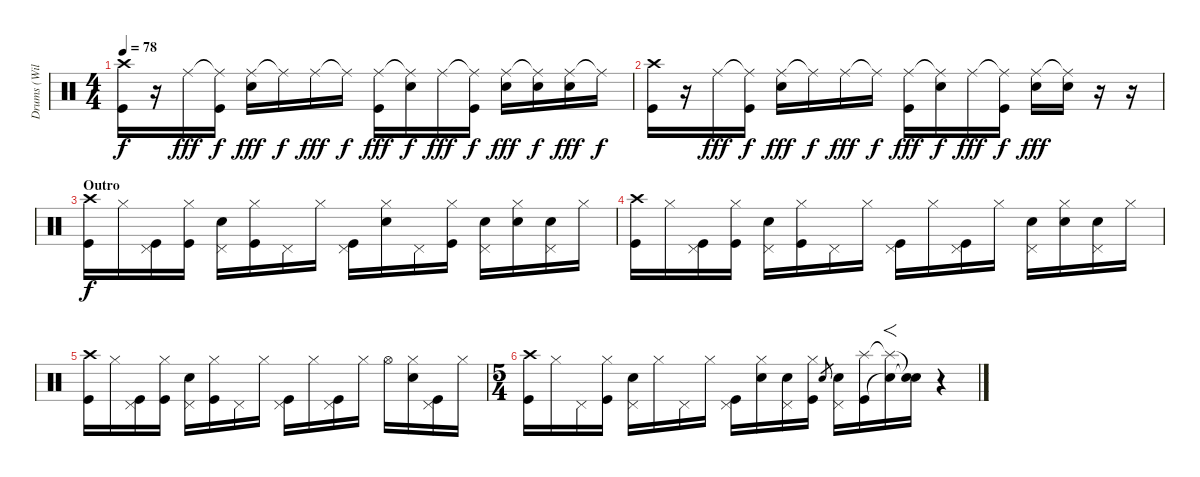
\track ("Drums (William Ward)" "Drums (Wil") {instrument percussion}
\staff {score}
\articulation defaults
\ts (4 4)
\tempo 78
\clef neutral
\ks c
("Crash high (hit)" "Kick (hit)").16{dy f} r.16 "Ride (middle)".16{dy fff} ("Ride (middle)"{t} "Kick (hit)").16{dy f} ("Ride (middle)" "Electric Snare (hit)").16{dy fff} "Ride (middle)"{t}.16{dy f} "Ride (middle)".16{dy fff} "Ride (middle)"{t}.16{dy f} ("Ride (middle)" "Kick (hit)").16{dy fff} ("Ride (middle)"{t} "Electric Snare (hit)").16{dy f} "Ride (middle)".16{dy fff} ("Ride (middle)"{t} "Kick (hit)").16{dy f} ("Ride (middle)" "Electric Snare (hit)").16{dy fff} ("Ride (middle)"{t} "Electric Snare (hit)").16{dy f} ("Ride (middle)" "Electric Snare (hit)").16{dy fff} "Ride (middle)"{t}.16{dy f} |
("Crash high (hit)" "Kick (hit)").16 r.16 "Ride (middle)".16{dy fff} ("Ride (middle)"{t} "Kick (hit)").16{dy f} ("Ride (middle)" "Electric Snare (hit)").16{dy fff} "Ride (middle)"{t}.16{dy f} "Ride (middle)".16{dy fff} "Ride (middle)"{t}.16{dy f} ("Ride (middle)" "Kick (hit)").16{dy fff} ("Ride (middle)"{t} "Electric Snare (hit)").16{dy f} "Ride (middle)".16{dy fff} ("Ride (middle)"{t} "Kick (hit)").16{dy f} ("Ride (middle)" "Electric Snare (hit)").16{dy fff} ("Ride (middle)"{t} "Electric Snare (hit)").16 r.16 r.16 |
\section ("" "Outro")
("Crash high (hit)" "Kick (hit)").16{dy f} "Hi-Hat (closed)".16 ("Pedal Hi-Hat (hit)" "Kick (hit)").16 ("Hi-Hat (closed)" "Kick (hit)").16 ("Pedal Hi-Hat (hit)" "Electric Snare (hit)").16 ("Hi-Hat (closed)" "Kick (hit)").16 "Pedal Hi-Hat (hit)".16 "Hi-Hat (closed)".16 ("Pedal Hi-Hat (hit)" "Kick (hit)").16 ("Hi-Hat (closed)" "Electric Snare (hit)").16 "Pedal Hi-Hat (hit)".16 ("Hi-Hat (closed)" "Kick (hit)").16 ("Pedal Hi-Hat (hit)" "Electric Snare (hit)").16 ("Hi-Hat (closed)" "Electric Snare (hit)").16 ("Pedal Hi-Hat (hit)" "Electric Snare (hit)").16 "Hi-Hat (closed)".16 |
("Crash high (hit)" "Kick (hit)").16 "Hi-Hat (closed)".16 ("Pedal Hi-Hat (hit)" "Kick (hit)").16 ("Hi-Hat (closed)" "Kick (hit)").16 ("Pedal Hi-Hat (hit)" "Electric Snare (hit)").16 ("Hi-Hat (closed)" "Kick (hit)").16 "Pedal Hi-Hat (hit)".16 "Hi-Hat (closed)".16 ("Pedal Hi-Hat (hit)" "Kick (hit)").16 "Hi-Hat (closed)".16 ("Pedal Hi-Hat (hit)" "Kick (hit)").16 "Hi-Hat (closed)".16 ("Pedal Hi-Hat (hit)" "Electric Snare (hit)").16 ("Hi-Hat (closed)" "Electric Snare (hit)").16 ("Pedal Hi-Hat (hit)" "Electric Snare (hit)").16 "Hi-Hat (closed)".16 |
("Crash high (hit)" "Kick (hit)").16 "Hi-Hat (closed)".16 ("Pedal Hi-Hat (hit)" "Kick (hit)").16 ("Hi-Hat (closed)" "Kick (hit)").16 ("Pedal Hi-Hat (hit)" "Electric Snare (hit)").16 ("Hi-Hat (closed)" "Kick (hit)").16 "Pedal Hi-Hat (hit)".16 "Hi-Hat (closed)".16 ("Pedal Hi-Hat (hit)" "Kick (hit)").16 "Hi-Hat (closed)".16 ("Pedal Hi-Hat (hit)" "Kick (hit)").16 "Hi-Hat (closed)".16 "Hi-Hat (open)".16 ("Hi-Hat (closed)" "Electric Snare (hit)").16 ("Pedal Hi-Hat (hit)" "Kick (hit)").16 "Hi-Hat (closed)".16 |
\ts (5 4)
("Crash high (hit)" "Kick (hit)").16 "Hi-Hat (closed)".16 "Pedal Hi-Hat (hit)".16 ("Hi-Hat (closed)" "Kick (hit)").16 ("Pedal Hi-Hat (hit)" "Electric Snare (hit)").16 "Hi-Hat (closed)".16 "Pedal Hi-Hat (hit)".16 "Hi-Hat (closed)".16 ("Pedal Hi-Hat (hit)" "Kick (hit)").16 ("Hi-Hat (closed)" "Electric Snare (hit)").16 ("Pedal Hi-Hat (hit)" "Electric Snare (hit)").16 ("Hi-Hat (closed)" "Kick (hit)").16 "Electric Snare (hit)".8{gr} ("Pedal Hi-Hat (hit)" "Electric Snare (hit)").16 ("Splash (hit)" "Kick (hit)").16 ("Splash (hit)"{t} "Snare (hit)"{t}).16{f} ("Snare (hit)"{t} "Snare (hit)"{t}).16 r.4
